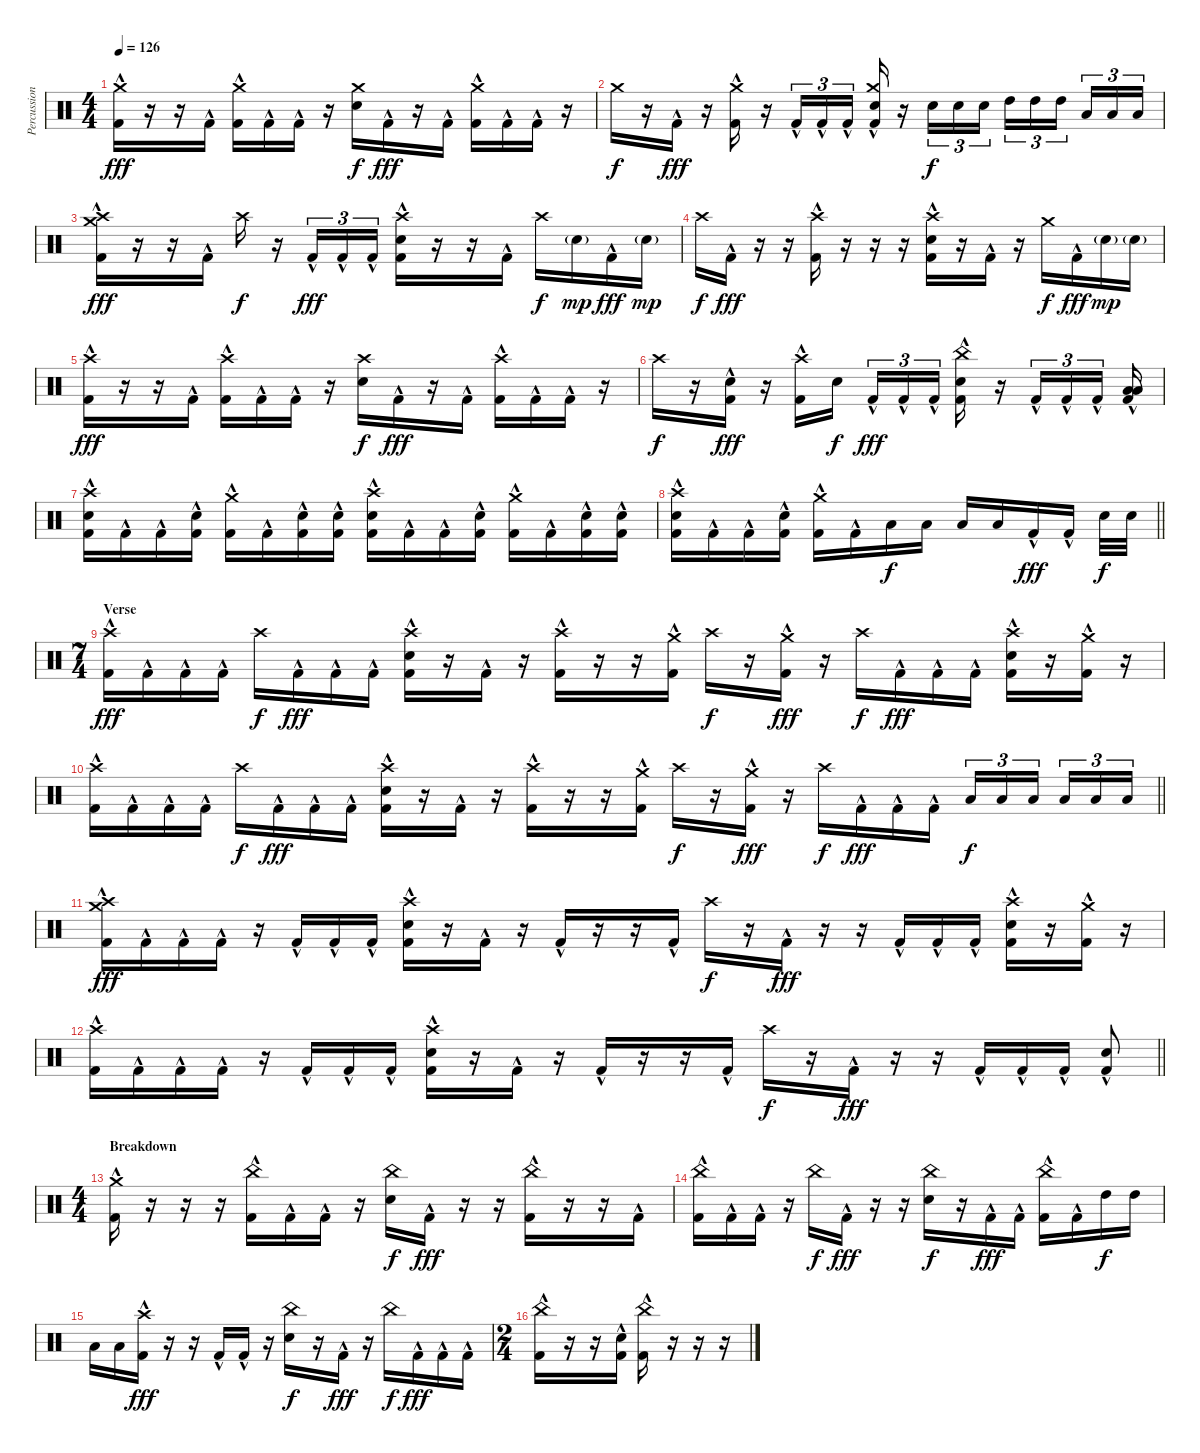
\track ("Percussion" "Percussion") {instrument percussion}
\staff {score}
\articulation defaults
\ts (4 4)
\tempo 126
\clef neutral
\ks aminor
("Kick (hit) 2"{hac} "Crash medium (hit)").16{dy fff} r.16 r.16 "Kick (hit) 2"{hac}.16 ("Kick (hit) 2"{hac} "Crash medium (hit)").16 "Kick (hit) 2"{hac}.16 "Kick (hit) 2"{hac}.16 r.16 ("Crash medium (hit)" "Electric Snare (hit)").16{dy f} "Kick (hit) 2"{hac}.16{dy fff} r.16 "Kick (hit) 2"{hac}.16 ("Kick (hit) 2"{hac} "Crash medium (hit)").16 "Kick (hit) 2"{hac}.16 "Kick (hit) 2"{hac}.16 r.16 |
"Crash medium (hit)".16{dy f} r.16 "Kick (hit) 2"{hac}.16{dy fff} r.16 ("Kick (hit) 2"{hac} "Crash medium (hit)").16 r.16 "Kick (hit) 2"{hac}.16{tu (3 2)} "Kick (hit) 2"{hac}.16{tu (3 2)} "Kick (hit) 2"{hac}.16{tu (3 2)} ("Kick (hit) 2"{hac} "Crash medium (hit)" "Electric Snare (hit)").16 r.16 "Electric Snare (hit)".16{tu (3 2) dy f} "Electric Snare (hit)".16{tu (3 2)} "Electric Snare (hit)".16{tu (3 2)} "High Tom (hit)".16{tu (3 2)} "High Tom (hit)".16{tu (3 2)} "High Tom (hit)".16{tu (3 2) beam splitsecondary} "Low Tom (hit)".16{tu (3 2)} "Low Tom (hit)".16{tu (3 2)} "Low Tom (hit)".16{tu (3 2)} |
("Kick (hit) 2"{hac} "Crash medium (hit)" "Crash high (hit)").16{dy fff} r.16 r.16 "Kick (hit) 2"{hac}.16 "Crash high (hit)".16{dy f} r.16 "Kick (hit) 2"{hac}.16{tu (3 2) dy fff} "Kick (hit) 2"{hac}.16{tu (3 2)} "Kick (hit) 2"{hac}.16{tu (3 2)} ("Kick (hit) 2"{hac} "Crash high (hit)" "Electric Snare (hit)").16 r.16 r.16 "Kick (hit) 2"{hac}.16 "Crash high (hit)".16{dy f} "Electric Snare (hit)"{g}.16{dy mp} "Kick (hit) 2"{hac}.16{dy fff} "Electric Snare (hit)"{g}.16{dy mp} |
"Crash high (hit)".16{dy f} "Kick (hit) 2"{hac}.16{dy fff} r.16 r.16 ("Kick (hit) 2"{hac} "Crash high (hit)").16 r.16 r.16 r.16 ("Kick (hit) 2"{hac} "Electric Snare (hit)" "Crash high (hit)").16 r.16 "Kick (hit) 2"{hac}.16 r.16 "Crash medium (hit)".16{dy f} "Kick (hit) 2"{hac}.16{dy fff} "Electric Snare (hit)"{g}.16{dy mp} "Electric Snare (hit)"{g}.16 |
("Kick (hit) 2"{hac} "Crash high (hit)").16{dy fff} r.16 r.16 "Kick (hit) 2"{hac}.16 ("Kick (hit) 2"{hac} "Crash high (hit)").16 "Kick (hit) 2"{hac}.16 "Kick (hit) 2"{hac}.16 r.16 ("Electric Snare (hit)" "Crash high (hit)").16{dy f} "Kick (hit) 2"{hac}.16{dy fff} r.16 "Kick (hit) 2"{hac}.16 ("Kick (hit) 2"{hac} "Crash high (hit)").16 "Kick (hit) 2"{hac}.16 "Kick (hit) 2"{hac}.16 r.16 |
"Crash high (hit)".16{dy f} r.16 ("Kick (hit) 2"{hac} "Electric Snare (hit)").16{dy fff} r.16 ("Kick (hit) 2"{hac} "Crash high (hit)").16 "Electric Snare (hit)".16{dy f beam splitsecondary} "Kick (hit) 2"{hac}.16{tu (3 2) dy fff} "Kick (hit) 2"{hac}.16{tu (3 2)} "Kick (hit) 2"{hac}.16{tu (3 2)} ("Kick (hit) 2"{hac} "China (hit)" "Electric Snare (hit)").16 r.16 "Kick (hit) 2"{hac}.16{tu (3 2)} "Kick (hit) 2"{hac}.16{tu (3 2)} "Kick (hit) 2"{hac}.16{tu (3 2)} ("Kick (hit) 2"{hac} "Low Floor Tom (hit)" "Low Tom (hit)").16 |
("Kick (hit) 2"{hac} "Electric Snare (hit)" "Crash high (hit)").16 "Kick (hit) 2"{hac}.16 "Kick (hit) 2"{hac}.16 ("Kick (hit) 2"{hac} "Electric Snare (hit)").16 ("Kick (hit) 2"{hac} "Crash medium (hit)").16 "Kick (hit) 2"{hac}.16 ("Kick (hit) 2"{hac} "Electric Snare (hit)").16 ("Kick (hit) 2"{hac} "Electric Snare (hit)").16 ("Kick (hit) 2"{hac} "Electric Snare (hit)" "Crash high (hit)").16 "Kick (hit) 2"{hac}.16 "Kick (hit) 2"{hac}.16 ("Kick (hit) 2"{hac} "Electric Snare (hit)").16 ("Kick (hit) 2"{hac} "Crash medium (hit)").16 "Kick (hit) 2"{hac}.16 ("Kick (hit) 2"{hac} "Electric Snare (hit)").16 ("Kick (hit) 2"{hac} "Electric Snare (hit)").16 |
\barLineRight lightlight
("Kick (hit) 2"{hac} "Electric Snare (hit)" "Crash high (hit)").16 "Kick (hit) 2"{hac}.16 "Kick (hit) 2"{hac}.16 ("Kick (hit) 2"{hac} "Electric Snare (hit)").16 ("Kick (hit) 2"{hac} "Crash medium (hit)").16 "Kick (hit) 2"{hac}.16 "Low Floor Tom (hit)".16{dy f} "Low Floor Tom (hit)".16 "Low Tom (hit)".16 "Low Tom (hit)".16 "Kick (hit) 2"{hac}.16{dy fff} "Kick (hit) 2"{hac}.16 "Electric Snare (hit)".32{dy f} "Electric Snare (hit)".32 |
\ts (7 4)
\section ("" "Verse")
("Crash high (hit)" "Kick (hit) 2"{hac}).16{dy fff} "Kick (hit) 2"{hac}.16 "Kick (hit) 2"{hac}.16 "Kick (hit) 2"{hac}.16 "Crash high (hit)".16{dy f} "Kick (hit) 2"{hac}.16{dy fff} "Kick (hit) 2"{hac}.16 "Kick (hit) 2"{hac}.16 ("Crash high (hit)" "Electric Snare (hit)" "Kick (hit) 2"{hac}).16 r.16 "Kick (hit) 2"{hac}.16 r.16 ("Crash high (hit)" "Kick (hit) 2"{hac}).16 r.16 r.16 ("Crash medium (hit)" "Kick (hit) 2"{hac}).16 "Crash high (hit)".16{dy f} r.16 ("Crash medium (hit)" "Kick (hit) 2"{hac}).16{dy fff} r.16 "Crash high (hit)".16{dy f} "Kick (hit) 2"{hac}.16{dy fff} "Kick (hit) 2"{hac}.16 "Kick (hit) 2"{hac}.16 ("Crash high (hit)" "Electric Snare (hit)" "Kick (hit) 2"{hac}).16 r.16 ("Crash medium (hit)" "Kick (hit) 2"{hac}).16 r.16 |
\barLineRight lightlight
("Crash high (hit)" "Kick (hit) 2"{hac}).16 "Kick (hit) 2"{hac}.16 "Kick (hit) 2"{hac}.16 "Kick (hit) 2"{hac}.16 "Crash high (hit)".16{dy f} "Kick (hit) 2"{hac}.16{dy fff} "Kick (hit) 2"{hac}.16 "Kick (hit) 2"{hac}.16 ("Crash high (hit)" "Electric Snare (hit)" "Kick (hit) 2"{hac}).16 r.16 "Kick (hit) 2"{hac}.16 r.16 ("Crash high (hit)" "Kick (hit) 2"{hac}).16 r.16 r.16 ("Crash medium (hit)" "Kick (hit) 2"{hac}).16 "Crash high (hit)".16{dy f} r.16 ("Crash medium (hit)" "Kick (hit) 2"{hac}).16{dy fff} r.16 "Crash high (hit)".16{dy f} "Kick (hit) 2"{hac}.16{dy fff} "Kick (hit) 2"{hac}.16 "Kick (hit) 2"{hac}.16 "Low Tom (hit)".16{tu (3 2) dy f} "Low Tom (hit)".16{tu (3 2)} "Low Floor Tom (hit)".16{tu (3 2) beam splitsecondary} "Low Floor Tom (hit)".16{tu (3 2)} "Low Floor Tom (hit)".16{tu (3 2)} "Low Floor Tom (hit)".16{tu (3 2)} |
("Crash high (hit)" "Crash medium (hit)" "Kick (hit) 2"{hac}).16{dy fff} "Kick (hit) 2"{hac}.16 "Kick (hit) 2"{hac}.16 "Kick (hit) 2"{hac}.16 r.16 "Kick (hit) 2"{hac}.16 "Kick (hit) 2"{hac}.16 "Kick (hit) 2"{hac}.16 ("Crash high (hit)" "Electric Snare (hit)" "Kick (hit) 2"{hac}).16 r.16 "Kick (hit) 2"{hac}.16 r.16 "Kick (hit) 2"{hac}.16 r.16 r.16 "Kick (hit) 2"{hac}.16 "Crash high (hit)".16{dy f} r.16 "Kick (hit) 2"{hac}.16{dy fff} r.16 r.16 "Kick (hit) 2"{hac}.16 "Kick (hit) 2"{hac}.16 "Kick (hit) 2"{hac}.16 ("Crash high (hit)" "Electric Snare (hit)" "Kick (hit) 2"{hac}).16 r.16 ("Crash medium (hit)" "Kick (hit) 2"{hac}).16 r.16 |
\barLineRight lightlight
("Crash high (hit)" "Kick (hit) 2"{hac}).16 "Kick (hit) 2"{hac}.16 "Kick (hit) 2"{hac}.16 "Kick (hit) 2"{hac}.16 r.16 "Kick (hit) 2"{hac}.16 "Kick (hit) 2"{hac}.16 "Kick (hit) 2"{hac}.16 ("Crash high (hit)" "Electric Snare (hit)" "Kick (hit) 2"{hac}).16 r.16 "Kick (hit) 2"{hac}.16 r.16 "Kick (hit) 2"{hac}.16 r.16 r.16 "Kick (hit) 2"{hac}.16 "Crash high (hit)".16{dy f} r.16 "Kick (hit) 2"{hac}.16{dy fff} r.16 r.16 "Kick (hit) 2"{hac}.16 "Kick (hit) 2"{hac}.16 "Kick (hit) 2"{hac}.16 ("Electric Snare (hit)" "Kick (hit) 2"{hac}).8 |
\ts (4 4)
\section ("" "Breakdown")
("Crash medium (hit)" "Kick (hit) 2"{hac}).16 r.16 r.16{volume 0} r.16 ("China (hit)" "Kick (hit) 2"{hac}).16{volume 13} "Kick (hit) 2"{hac}.16 "Kick (hit) 2"{hac}.16 r.16 ("China (hit)" "Electric Snare (hit)").16{dy f} "Kick (hit) 2"{hac}.16{dy fff} r.16 r.16 ("China (hit)" "Kick (hit) 2"{hac}).16 r.16 r.16 "Kick (hit) 2"{hac}.16 |
("China (hit)" "Kick (hit) 2"{hac}).16 "Kick (hit) 2"{hac}.16 "Kick (hit) 2"{hac}.16 r.16 "China (hit)".16{dy f} "Kick (hit) 2"{hac}.16{dy fff} r.16 r.16 ("China (hit)" "Electric Snare (hit)").16{dy f} r.16 "Kick (hit) 2"{hac}.16{dy fff} "Kick (hit) 2"{hac}.16 ("China (hit)" "Kick (hit) 2"{hac}).16 "Kick (hit) 2"{hac}.16 "High Tom (hit)".16{dy f} "High Tom (hit)".16 |
"Low Tom (hit)".16 "Low Floor Tom (hit)".16 ("Crash high (hit)" "Kick (hit) 2"{hac}).16{dy fff} r.16 r.16 "Kick (hit) 2"{hac}.16 "Kick (hit) 2"{hac}.16 r.16 ("China (hit)" "Electric Snare (hit)").16{dy f} r.16 "Kick (hit) 2"{hac}.16{dy fff} r.16 "China (hit)".16{dy f} "Kick (hit) 2"{hac}.16{dy fff} "Kick (hit) 2"{hac}.16 "Kick (hit) 2"{hac}.16 |
\ts (2 4)
("China (hit)" "Kick (hit) 2"{hac}).16 r.16 r.16 ("Electric Snare (hit)" "Kick (hit) 2"{hac}).16 ("China (hit)" "Kick (hit) 2"{hac}).16 r.16 r.16 r.16
